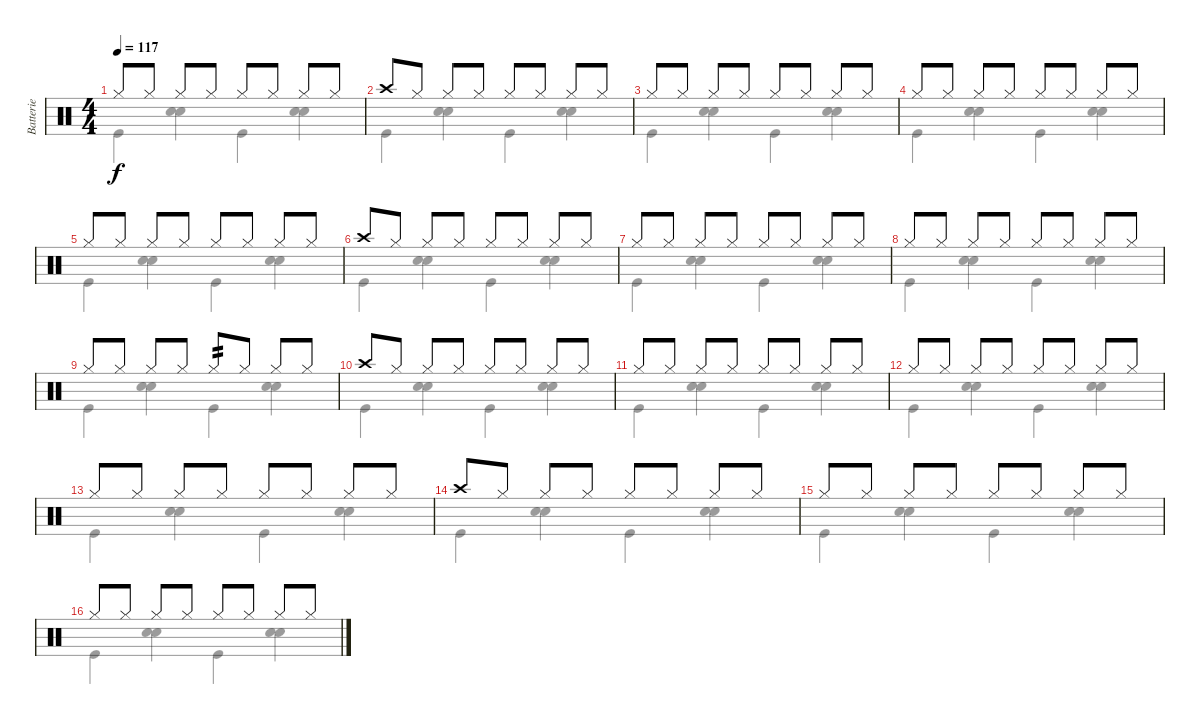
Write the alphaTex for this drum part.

\track ("Batterie" "Batterie") {instrument percussion}
\staff {score}
\articulation defaults
\voice
\ts (4 4)
\tempo 117
\clef neutral
\ks c "Hi-Hat (closed)".8{dy f} "Hi-Hat (closed)".8 "Hi-Hat (closed)".8 "Hi-Hat (closed)".8 "Hi-Hat (closed)".8 "Hi-Hat (closed)".8 "Hi-Hat (closed)".8 "Hi-Hat (closed)".8
|
"Crash high (hit)".8 "Hi-Hat (closed)".8 "Hi-Hat (closed)".8 "Hi-Hat (closed)".8 "Hi-Hat (closed)".8 "Hi-Hat (closed)".8 "Hi-Hat (closed)".8 "Hi-Hat (closed)".8 |
"Hi-Hat (closed)".8 "Hi-Hat (closed)".8 "Hi-Hat (closed)".8 "Hi-Hat (closed)".8 "Hi-Hat (closed)".8 "Hi-Hat (closed)".8 "Hi-Hat (closed)".8 "Hi-Hat (closed)".8 |
"Hi-Hat (closed)".8 "Hi-Hat (closed)".8 "Hi-Hat (closed)".8 "Hi-Hat (closed)".8 "Hi-Hat (closed)".8 "Hi-Hat (closed)".8 "Hi-Hat (closed)".8 "Hi-Hat (closed)".8 |
"Hi-Hat (closed)".8 "Hi-Hat (closed)".8 "Hi-Hat (closed)".8 "Hi-Hat (closed)".8 "Hi-Hat (closed)".8 "Hi-Hat (closed)".8 "Hi-Hat (closed)".8 "Hi-Hat (closed)".8 |
"Crash high (hit)".8 "Hi-Hat (closed)".8 "Hi-Hat (closed)".8 "Hi-Hat (closed)".8 "Hi-Hat (closed)".8 "Hi-Hat (closed)".8 "Hi-Hat (closed)".8 "Hi-Hat (closed)".8 |
"Hi-Hat (closed)".8 "Hi-Hat (closed)".8 "Hi-Hat (closed)".8 "Hi-Hat (closed)".8 "Hi-Hat (closed)".8 "Hi-Hat (closed)".8 "Hi-Hat (closed)".8 "Hi-Hat (closed)".8 |
"Hi-Hat (closed)".8 "Hi-Hat (closed)".8 "Hi-Hat (closed)".8 "Hi-Hat (closed)".8 "Hi-Hat (closed)".8 "Hi-Hat (closed)".8 "Hi-Hat (closed)".8 "Hi-Hat (closed)".8 |
"Hi-Hat (closed)".8 "Hi-Hat (closed)".8 "Hi-Hat (closed)".8 "Hi-Hat (closed)".8 "Hi-Hat (closed)".8{tp 2} "Hi-Hat (closed)".8 "Hi-Hat (closed)".8 "Hi-Hat (closed)".8 |
"Crash high (hit)".8 "Hi-Hat (closed)".8 "Hi-Hat (closed)".8 "Hi-Hat (closed)".8 "Hi-Hat (closed)".8 "Hi-Hat (closed)".8 "Hi-Hat (closed)".8 "Hi-Hat (closed)".8 |
"Hi-Hat (closed)".8 "Hi-Hat (closed)".8 "Hi-Hat (closed)".8 "Hi-Hat (closed)".8 "Hi-Hat (closed)".8 "Hi-Hat (closed)".8 "Hi-Hat (closed)".8 "Hi-Hat (closed)".8 |
"Hi-Hat (closed)".8 "Hi-Hat (closed)".8 "Hi-Hat (closed)".8 "Hi-Hat (closed)".8 "Hi-Hat (closed)".8 "Hi-Hat (closed)".8 "Hi-Hat (closed)".8 "Hi-Hat (closed)".8 |
"Hi-Hat (closed)".8 "Hi-Hat (closed)".8 "Hi-Hat (closed)".8 "Hi-Hat (closed)".8 "Hi-Hat (closed)".8 "Hi-Hat (closed)".8 "Hi-Hat (closed)".8 "Hi-Hat (closed)".8 |
"Crash high (hit)".8 "Hi-Hat (closed)".8 "Hi-Hat (closed)".8 "Hi-Hat (closed)".8 "Hi-Hat (closed)".8 "Hi-Hat (closed)".8 "Hi-Hat (closed)".8 "Hi-Hat (closed)".8 |
"Hi-Hat (closed)".8 "Hi-Hat (closed)".8 "Hi-Hat (closed)".8 "Hi-Hat (closed)".8 "Hi-Hat (closed)".8 "Hi-Hat (closed)".8 "Hi-Hat (closed)".8 "Hi-Hat (closed)".8 |
"Hi-Hat (closed)".8 "Hi-Hat (closed)".8 "Hi-Hat (closed)".8 "Hi-Hat (closed)".8 "Hi-Hat (closed)".8 "Hi-Hat (closed)".8 "Hi-Hat (closed)".8 "Hi-Hat (closed)".8
\voice
\clef neutral
\ottava regular
\simile none
\ks c "Kick (hit)".4{dy f}
("Hand Clap (hit)" "Snare (hit) 2").4 "Kick (hit)".4 ("Hand Clap (hit)" "Snare (hit) 2").4 |
"Kick (hit)".4 ("Hand Clap (hit)" "Snare (hit) 2").4 "Kick (hit)".4 ("Hand Clap (hit)" "Snare (hit) 2").4 |
"Kick (hit)".4 ("Hand Clap (hit)" "Snare (hit) 2").4 "Kick (hit)".4 ("Hand Clap (hit)" "Snare (hit) 2").4 |
"Kick (hit)".4 ("Hand Clap (hit)" "Snare (hit) 2").4 "Kick (hit)".4 ("Hand Clap (hit)" "Snare (hit) 2").4 |
"Kick (hit)".4 ("Hand Clap (hit)" "Snare (hit) 2").4 "Kick (hit)".4 ("Hand Clap (hit)" "Snare (hit) 2").4 |
"Kick (hit)".4 ("Hand Clap (hit)" "Snare (hit) 2").4 "Kick (hit)".4 ("Hand Clap (hit)" "Snare (hit) 2").4 |
"Kick (hit)".4 ("Hand Clap (hit)" "Snare (hit) 2").4 "Kick (hit)".4 ("Hand Clap (hit)" "Snare (hit) 2").4 |
"Kick (hit)".4 ("Hand Clap (hit)" "Snare (hit) 2").4 "Kick (hit)".4 ("Hand Clap (hit)" "Snare (hit) 2").4 |
"Kick (hit)".4 ("Hand Clap (hit)" "Snare (hit) 2").4 "Kick (hit)".4 ("Hand Clap (hit)" "Snare (hit) 2").4 |
"Kick (hit)".4 ("Hand Clap (hit)" "Snare (hit) 2").4 "Kick (hit)".4 ("Hand Clap (hit)" "Snare (hit) 2").4 |
"Kick (hit)".4 ("Hand Clap (hit)" "Snare (hit) 2").4 "Kick (hit)".4 ("Hand Clap (hit)" "Snare (hit) 2").4 |
"Kick (hit)".4 ("Hand Clap (hit)" "Snare (hit) 2").4 "Kick (hit)".4 ("Hand Clap (hit)" "Snare (hit) 2").4 |
"Kick (hit)".4 ("Hand Clap (hit)" "Snare (hit) 2").4 "Kick (hit)".4 ("Hand Clap (hit)" "Snare (hit) 2").4 |
"Kick (hit)".4 ("Hand Clap (hit)" "Snare (hit) 2").4 "Kick (hit)".4 ("Hand Clap (hit)" "Snare (hit) 2").4 |
"Kick (hit)".4 ("Hand Clap (hit)" "Snare (hit) 2").4 "Kick (hit)".4 ("Hand Clap (hit)" "Snare (hit) 2").4 |
"Kick (hit)".4 ("Hand Clap (hit)" "Snare (hit) 2").4 "Kick (hit)".4 ("Hand Clap (hit)" "Snare (hit) 2").4
